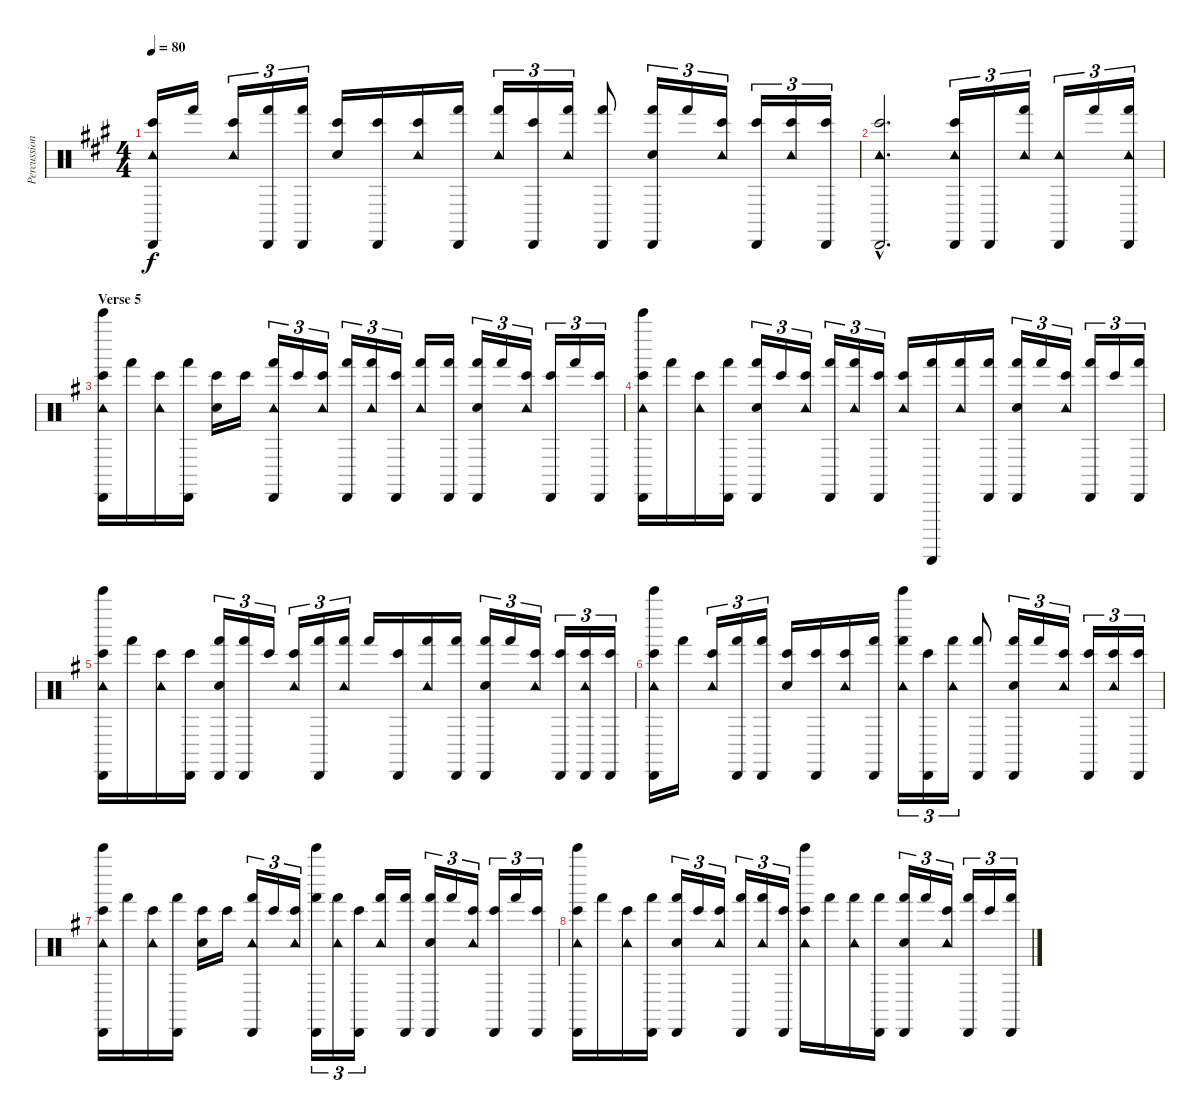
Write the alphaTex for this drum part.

\track ("Percussion" "Percussion") {instrument percussion}
\staff {score}
\articulation defaults
\ts (4 4)
\tempo 80
\clef neutral
\ks a
("Cabasa (hit)" "Tambourine (hit)" "Bongo High (hit)").16{dy f} "Hand (hit)".16 ("Tambourine (hit)" "Bongo High (hit)").16{tu (3 2)} ("Cabasa (hit)" "Hand (hit)").16{tu (3 2)} ("Cabasa (hit)" "Hand (hit)").16{tu (3 2)} ("Hand Clap (hit)" "Bongo High (hit)").16 ("Cabasa (hit)" "Bongo High (hit)").16 ("Tambourine (hit)" "Bongo High (hit)").16 ("Cabasa (hit)" "Hand (hit)").16 ("Tambourine (hit)" "Hand (hit)").16{tu (3 2)} ("Cabasa (hit)" "Bongo High (hit)").16{tu (3 2)} ("Tambourine (hit)" "Hand (hit)").16{tu (3 2)} ("Cabasa (hit)" "Hand (hit)").8 ("Cabasa (hit)" "Hand Clap (hit)" "Hand (hit)").16{tu (3 2)} "Hand (hit)".16{tu (3 2)} ("Tambourine (hit)" "Bongo High (hit)").16{tu (3 2)} ("Cabasa (hit)" "Bongo High (hit)").16{tu (3 2)} ("Tambourine (hit)" "Bongo High (hit)").16{tu (3 2)} ("Cabasa (hit)" "Bongo High (hit)").16{tu (3 2)} |
("Cabasa (hit)"{hac} "Tambourine (hit)"{hac} "Bongo High (hit)"{hac}).2{d} ("Cabasa (hit)" "Tambourine (hit)" "Bongo High (hit)").16{tu (3 2)} "Cabasa (hit)".16{tu (3 2)} ("Tambourine (hit)" "Hand (hit)").16{tu (3 2)} ("Cabasa (hit)" "Tambourine (hit)").16{tu (3 2)} "Hand (hit)".16{tu (3 2)} ("Cabasa (hit)" "Tambourine (hit)" "Hand (hit)").16{tu (3 2)} |
\section ("" "Verse 5")
\ks g
("Cabasa (hit)" "Bell Tree (hit)" "Tambourine (hit)" "Bongo High (hit)").16 "Hand (hit)".16 ("Tambourine (hit)" "Bongo High (hit)").16 ("Cabasa (hit)" "Hand (hit)").16 ("Hand Clap (hit)" "Bongo High (hit)").16 "Bongo High (hit)".16 ("Cabasa (hit)" "Tambourine (hit)" "Hand (hit)").16{tu (3 2)} "Bongo High (hit)".16{tu (3 2)} ("Tambourine (hit)" "Bongo High (hit)").16{tu (3 2)} ("Cabasa (hit)" "Hand (hit)").16{tu (3 2)} ("Tambourine (hit)" "Hand (hit)").16{tu (3 2)} ("Cabasa (hit)" "Bongo High (hit)").16{tu (3 2)} ("Tambourine (hit)" "Hand (hit)").16 ("Cabasa (hit)" "Hand (hit)").16 ("Cabasa (hit)" "Hand Clap (hit)" "Hand (hit)").16{tu (3 2)} "Hand (hit)".16{tu (3 2)} ("Tambourine (hit)" "Bongo High (hit)").16{tu (3 2)} ("Cabasa (hit)" "Bongo High (hit)").16{tu (3 2)} "Hand (hit)".16{tu (3 2)} ("Cabasa (hit)" "Bongo High (hit)").16{tu (3 2)} |
("Cabasa (hit)" "Bell Tree (hit)" "Tambourine (hit)" "Bongo High (hit)").16 "Hand (hit)".16 ("Tambourine (hit)" "Bongo High (hit)").16 ("Cabasa (hit)" "Hand (hit)").16 ("Cabasa (hit)" "Hand Clap (hit)" "Hand (hit)").16{tu (3 2)} "Bongo High (hit)".16{tu (3 2)} ("Tambourine (hit)" "Bongo High (hit)").16{tu (3 2)} ("Cabasa (hit)" "Hand (hit)").16{tu (3 2)} ("Tambourine (hit)" "Hand (hit)").16{tu (3 2)} ("Cabasa (hit)" "Bongo High (hit)").16{tu (3 2)} ("Tambourine (hit)" "Bongo High (hit)").16 ("Guiro (scrap-return)" "Hand (hit)").16 ("Tambourine (hit)" "Hand (hit)").16 ("Cabasa (hit)" "Hand (hit)").16 ("Cabasa (hit)" "Hand Clap (hit)" "Hand (hit)").16{tu (3 2)} "Hand (hit)".16{tu (3 2)} ("Tambourine (hit)" "Bongo High (hit)").16{tu (3 2)} ("Cabasa (hit)" "Hand (hit)").16{tu (3 2)} "Bongo High (hit)".16{tu (3 2)} ("Cabasa (hit)" "Hand (hit)").16{tu (3 2)} |
("Cabasa (hit)" "Bell Tree (hit)" "Tambourine (hit)" "Bongo High (hit)").16 "Hand (hit)".16 ("Tambourine (hit)" "Bongo High (hit)").16 ("Cabasa (hit)" "Bongo High (hit)").16 ("Cabasa (hit)" "Hand Clap (hit)" "Hand (hit)").16{tu (3 2)} ("Cabasa (hit)" "Hand (hit)").16{tu (3 2)} "Bongo High (hit)".16{tu (3 2)} ("Tambourine (hit)" "Bongo High (hit)").16{tu (3 2)} ("Cabasa (hit)" "Hand (hit)").16{tu (3 2)} ("Tambourine (hit)" "Hand (hit)").16{tu (3 2)} "Hand (hit)".16 ("Cabasa (hit)" "Bongo High (hit)").16 ("Tambourine (hit)" "Hand (hit)").16 ("Cabasa (hit)" "Hand (hit)").16 ("Cabasa (hit)" "Hand Clap (hit)" "Hand (hit)").16{tu (3 2)} "Hand (hit)".16{tu (3 2)} ("Tambourine (hit)" "Bongo High (hit)").16{tu (3 2)} ("Cabasa (hit)" "Bongo High (hit)").16{tu (3 2)} ("Cabasa (hit)" "Tambourine (hit)" "Bongo High (hit)").16{tu (3 2)} ("Cabasa (hit)" "Bongo High (hit)").16{tu (3 2)} |
("Cabasa (hit)" "Bell Tree (hit)" "Tambourine (hit)" "Bongo High (hit)").16 "Hand (hit)".16 ("Tambourine (hit)" "Bongo High (hit)").16{tu (3 2)} ("Cabasa (hit)" "Hand (hit)").16{tu (3 2)} ("Cabasa (hit)" "Hand (hit)").16{tu (3 2)} ("Hand Clap (hit)" "Bongo High (hit)").16 ("Cabasa (hit)" "Bongo High (hit)").16 ("Tambourine (hit)" "Bongo High (hit)").16 ("Cabasa (hit)" "Hand (hit)").16 ("Bell Tree (hit)" "Tambourine (hit)" "Hand (hit)").16{tu (3 2)} ("Cabasa (hit)" "Bongo High (hit)").16{tu (3 2)} ("Tambourine (hit)" "Hand (hit)").16{tu (3 2)} ("Cabasa (hit)" "Hand (hit)").8 ("Cabasa (hit)" "Hand Clap (hit)" "Hand (hit)").16{tu (3 2)} "Hand (hit)".16{tu (3 2)} ("Tambourine (hit)" "Bongo High (hit)").16{tu (3 2)} ("Cabasa (hit)" "Bongo High (hit)").16{tu (3 2)} ("Tambourine (hit)" "Bongo High (hit)").16{tu (3 2)} ("Cabasa (hit)" "Bongo High (hit)").16{tu (3 2)} |
("Cabasa (hit)" "Bell Tree (hit)" "Tambourine (hit)" "Bongo High (hit)").16 "Hand (hit)".16 ("Tambourine (hit)" "Bongo High (hit)").16 ("Cabasa (hit)" "Hand (hit)").16 ("Hand Clap (hit)" "Bongo High (hit)").16 "Bongo High (hit)".16 ("Cabasa (hit)" "Tambourine (hit)" "Hand (hit)").16{tu (3 2)} "Bongo High (hit)".16{tu (3 2)} ("Tambourine (hit)" "Bongo High (hit)").16{tu (3 2)} ("Cabasa (hit)" "Bell Tree (hit)" "Hand (hit)").16{tu (3 2)} ("Tambourine (hit)" "Hand (hit)").16{tu (3 2)} ("Cabasa (hit)" "Bongo High (hit)").16{tu (3 2)} ("Tambourine (hit)" "Hand (hit)").16 ("Cabasa (hit)" "Hand (hit)").16 ("Cabasa (hit)" "Hand Clap (hit)" "Hand (hit)").16{tu (3 2)} "Hand (hit)".16{tu (3 2)} ("Tambourine (hit)" "Bongo High (hit)").16{tu (3 2)} ("Cabasa (hit)" "Bongo High (hit)").16{tu (3 2)} "Hand (hit)".16{tu (3 2)} ("Cabasa (hit)" "Bongo High (hit)").16{tu (3 2)} |
("Cabasa (hit)" "Bell Tree (hit)" "Tambourine (hit)" "Bongo High (hit)").16 "Hand (hit)".16 ("Tambourine (hit)" "Bongo High (hit)").16 ("Cabasa (hit)" "Hand (hit)").16 ("Cabasa (hit)" "Hand Clap (hit)" "Hand (hit)").16{tu (3 2)} "Bongo High (hit)".16{tu (3 2)} ("Tambourine (hit)" "Bongo High (hit)").16{tu (3 2)} ("Cabasa (hit)" "Hand (hit)").16{tu (3 2)} ("Tambourine (hit)" "Hand (hit)").16{tu (3 2)} ("Cabasa (hit)" "Bongo High (hit)").16{tu (3 2)} ("Bell Tree (hit)" "Tambourine (hit)" "Bongo High (hit)").16 "Hand (hit)".16 ("Tambourine (hit)" "Hand (hit)").16 ("Cabasa (hit)" "Hand (hit)").16 ("Cabasa (hit)" "Hand Clap (hit)" "Hand (hit)").16{tu (3 2)} "Hand (hit)".16{tu (3 2)} ("Tambourine (hit)" "Bongo High (hit)").16{tu (3 2)} ("Cabasa (hit)" "Hand (hit)").16{tu (3 2)} "Bongo High (hit)".16{tu (3 2)} ("Cabasa (hit)" "Hand (hit)").16{tu (3 2)}
